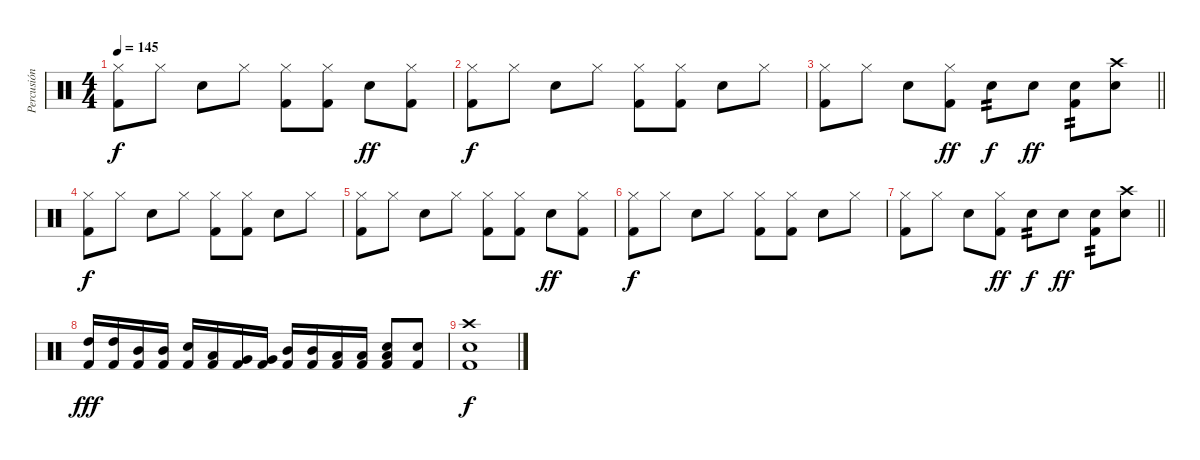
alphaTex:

\track ("Percusión" "Percusión") {instrument percussion}
\staff {score}
\articulation defaults
\ts (4 4)
\tempo 145
\clef neutral
\ks c
("Hi-Hat (closed)" "Kick (hit) 2").8{dy f} "Hi-Hat (closed)".8 "Snare (hit) 2".8 "Hi-Hat (closed)".8 ("Hi-Hat (closed)" "Kick (hit) 2").8 ("Hi-Hat (closed)" "Kick (hit) 2").8 "Snare (hit) 2".8{dy ff} ("Hi-Hat (closed)" "Kick (hit) 2").8 |
("Hi-Hat (closed)" "Kick (hit) 2").8{dy f} "Hi-Hat (closed)".8 "Snare (hit) 2".8 "Hi-Hat (closed)".8 ("Hi-Hat (closed)" "Kick (hit) 2").8 ("Hi-Hat (closed)" "Kick (hit) 2").8 "Snare (hit) 2".8 "Hi-Hat (closed)".8 |
\barLineRight lightlight
("Hi-Hat (closed)" "Kick (hit) 2").8 "Hi-Hat (closed)".8 "Snare (hit) 2".8 ("Hi-Hat (closed)" "Kick (hit) 2").8{dy ff} "Snare (hit) 2".8{tp 2 dy f} "Snare (hit) 2".8{dy ff} ("Snare (hit) 2" "Kick (hit) 2").8{tp 2} ("Snare (hit) 2" "Crash high (hit)").8 |
("Hi-Hat (closed)" "Kick (hit) 2").8{dy f} "Hi-Hat (closed)".8 "Snare (hit) 2".8 "Hi-Hat (closed)".8 ("Hi-Hat (closed)" "Kick (hit) 2").8 ("Hi-Hat (closed)" "Kick (hit) 2").8 "Snare (hit) 2".8 "Hi-Hat (closed)".8 |
("Hi-Hat (closed)" "Kick (hit) 2").8 "Hi-Hat (closed)".8 "Snare (hit) 2".8 "Hi-Hat (closed)".8 ("Hi-Hat (closed)" "Kick (hit) 2").8 ("Hi-Hat (closed)" "Kick (hit) 2").8 "Snare (hit) 2".8{dy ff} ("Hi-Hat (closed)" "Kick (hit) 2").8 |
("Hi-Hat (closed)" "Kick (hit) 2").8{dy f} "Hi-Hat (closed)".8 "Snare (hit) 2".8 "Hi-Hat (closed)".8 ("Hi-Hat (closed)" "Kick (hit) 2").8 ("Hi-Hat (closed)" "Kick (hit) 2").8 "Snare (hit) 2".8 "Hi-Hat (closed)".8 |
\barLineRight lightlight
("Hi-Hat (closed)" "Kick (hit) 2").8 "Hi-Hat (closed)".8 "Snare (hit) 2".8 ("Hi-Hat (closed)" "Kick (hit) 2").8{dy ff} "Snare (hit) 2".8{tp 2 dy f} "Snare (hit) 2".8{dy ff} ("Snare (hit) 2" "Kick (hit) 2").8{tp 2} ("Snare (hit) 2" "Crash high (hit)").8 |
("High Tom (hit)" "Kick (hit) 2").16{dy fff} ("High Tom (hit)" "Kick (hit) 2").16 ("Mid Tom (hit)" "Kick (hit) 2").16 ("Mid Tom (hit)" "Kick (hit) 2").16 ("Snare (hit) 2" "Kick (hit) 2").16 ("Low Tom (hit)" "Kick (hit) 2").16 ("Very Low Tom (hit)" "Kick (hit) 2").16 ("Very Low Tom (hit)" "Kick (hit) 2").16 ("Mid Tom (hit)" "Kick (hit) 2").16 ("Mid Tom (hit)" "Kick (hit) 2").16 ("Low Tom (hit)" "Kick (hit) 2").16 ("Low Tom (hit)" "Kick (hit) 2").16 ("Snare (hit) 2" "Low Floor Tom (hit)" "Kick (hit) 2").8 ("Snare (hit) 2" "Kick (hit) 2").8 |
("Snare (hit) 2" "Crash high (hit)" "Kick (hit) 2").1{dy f}
